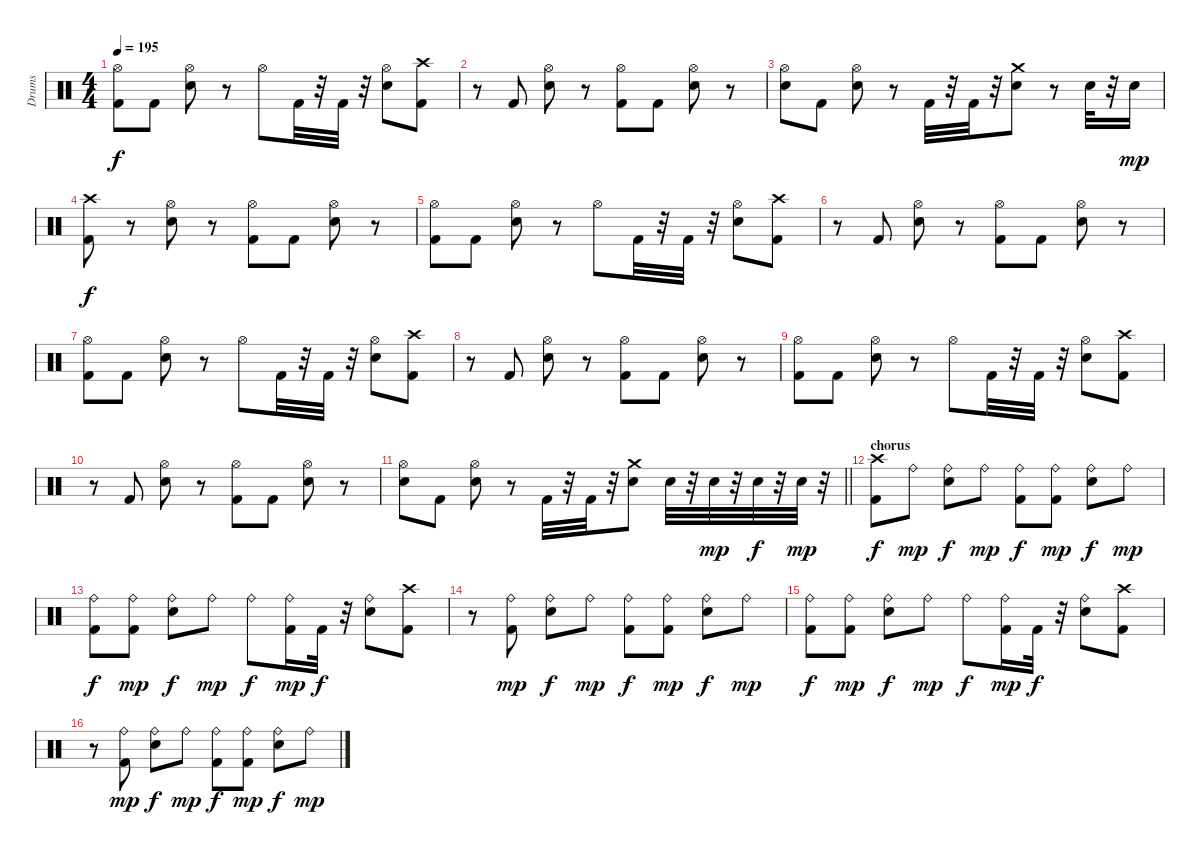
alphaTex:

\track ("Drums" "Drums") {instrument percussion}
\staff {score}
\articulation defaults
\ts (4 4)
\tempo 195
\clef neutral
\ks c
("Kick (hit) 2" "Hi-Hat (open)").8{dy f} "Kick (hit) 2".8 ("Electric Snare (hit)" "Hi-Hat (open)").8 r.8 "Hi-Hat (open)".8 "Kick (hit) 2".32 r.32 "Kick (hit) 2".32 r.32 ("Electric Snare (hit)" "Hi-Hat (open)").8 ("Kick (hit) 2" "Crash high (hit)").8 |
r.8 "Kick (hit) 2".8 ("Electric Snare (hit)" "Hi-Hat (open)").8 r.8 ("Kick (hit) 2" "Hi-Hat (open)").8 "Kick (hit) 2".8 ("Electric Snare (hit)" "Hi-Hat (open)").8 r.8 |
("Hi-Hat (open)" "Electric Snare (hit)").8 "Kick (hit) 2".8 ("Electric Snare (hit)" "Hi-Hat (open)").8 r.8 "Kick (hit) 2".32 r.32 "Kick (hit) 2".32 r.32 ("Electric Snare (hit)" "Crash medium (hit)").8 r.8 "Electric Snare (hit)".32 r.32 "Electric Snare (hit)".16{dy mp} |
("Kick (hit) 2" "Crash high (hit)").8{dy f} r.8 ("Electric Snare (hit)" "Hi-Hat (open)").8 r.8 ("Kick (hit) 2" "Hi-Hat (open)").8 "Kick (hit) 2".8 ("Electric Snare (hit)" "Hi-Hat (open)").8 r.8 |
("Kick (hit) 2" "Hi-Hat (open)").8 "Kick (hit) 2".8 ("Electric Snare (hit)" "Hi-Hat (open)").8 r.8 "Hi-Hat (open)".8 "Kick (hit) 2".32 r.32 "Kick (hit) 2".32 r.32 ("Electric Snare (hit)" "Hi-Hat (open)").8 ("Kick (hit) 2" "Crash high (hit)").8 |
r.8 "Kick (hit) 2".8 ("Electric Snare (hit)" "Hi-Hat (open)").8 r.8 ("Kick (hit) 2" "Hi-Hat (open)").8 "Kick (hit) 2".8 ("Electric Snare (hit)" "Hi-Hat (open)").8 r.8 |
("Kick (hit) 2" "Hi-Hat (open)").8 "Kick (hit) 2".8 ("Electric Snare (hit)" "Hi-Hat (open)").8 r.8 "Hi-Hat (open)".8 "Kick (hit) 2".32 r.32 "Kick (hit) 2".32 r.32 ("Electric Snare (hit)" "Hi-Hat (open)").8 ("Kick (hit) 2" "Crash high (hit)").8 |
r.8 "Kick (hit) 2".8 ("Electric Snare (hit)" "Hi-Hat (open)").8 r.8 ("Kick (hit) 2" "Hi-Hat (open)").8 "Kick (hit) 2".8 ("Electric Snare (hit)" "Hi-Hat (open)").8 r.8 |
("Kick (hit) 2" "Hi-Hat (open)").8 "Kick (hit) 2".8 ("Electric Snare (hit)" "Hi-Hat (open)").8 r.8 "Hi-Hat (open)".8 "Kick (hit) 2".32 r.32 "Kick (hit) 2".32 r.32 ("Electric Snare (hit)" "Hi-Hat (open)").8 ("Kick (hit) 2" "Crash high (hit)").8 |
r.8 "Kick (hit) 2".8 ("Electric Snare (hit)" "Hi-Hat (open)").8 r.8 ("Kick (hit) 2" "Hi-Hat (open)").8 "Kick (hit) 2".8 ("Electric Snare (hit)" "Hi-Hat (open)").8 r.8 |
\barLineRight lightlight
("Hi-Hat (open)" "Electric Snare (hit)").8 "Kick (hit) 2".8 ("Electric Snare (hit)" "Hi-Hat (open)").8 r.8 "Kick (hit) 2".32 r.32 "Kick (hit) 2".32 r.32 ("Electric Snare (hit)" "Crash medium (hit)").8 "Electric Snare (hit)".32 r.32 "Electric Snare (hit)".32{dy mp} r.32 "Electric Snare (hit)".32{dy f} r.32 "Electric Snare (hit)".32{dy mp} r.32 |
\section ("" "chorus")
("Kick (hit) 2" "Crash high (hit)").8{dy f} "Ride (bell)".8{dy mp} ("Electric Snare (hit)" "Ride (bell)").8{dy f} "Ride (bell)".8{dy mp} ("Kick (hit) 2" "Ride (bell)").8{dy f} ("Kick (hit) 2" "Ride (bell)").8{dy mp} ("Electric Snare (hit)" "Ride (bell)").8{dy f} "Ride (bell)".8{dy mp} |
("Kick (hit) 2" "Ride (bell)").8{dy f} ("Kick (hit) 2" "Ride (bell)").8{dy mp} ("Electric Snare (hit)" "Ride (bell)").8{dy f} "Ride (bell)".8{dy mp} "Ride (bell)".8{dy f} ("Kick (hit) 2" "Ride (bell)").16{dy mp} "Kick (hit) 2".32{dy f} r.32 ("Electric Snare (hit)" "Ride (bell)").8 ("Kick (hit) 2" "Crash high (hit)").8 |
r.8 ("Kick (hit) 2" "Ride (bell)").8{dy mp} ("Electric Snare (hit)" "Ride (bell)").8{dy f} "Ride (bell)".8{dy mp} ("Kick (hit) 2" "Ride (bell)").8{dy f} ("Kick (hit) 2" "Ride (bell)").8{dy mp} ("Electric Snare (hit)" "Ride (bell)").8{dy f} "Ride (bell)".8{dy mp} |
("Kick (hit) 2" "Ride (bell)").8{dy f} ("Kick (hit) 2" "Ride (bell)").8{dy mp} ("Electric Snare (hit)" "Ride (bell)").8{dy f} "Ride (bell)".8{dy mp} "Ride (bell)".8{dy f} ("Kick (hit) 2" "Ride (bell)").16{dy mp} "Kick (hit) 2".32{dy f} r.32 ("Electric Snare (hit)" "Ride (bell)").8 ("Kick (hit) 2" "Crash high (hit)").8 |
r.8 ("Kick (hit) 2" "Ride (bell)").8{dy mp} ("Electric Snare (hit)" "Ride (bell)").8{dy f} "Ride (bell)".8{dy mp} ("Kick (hit) 2" "Ride (bell)").8{dy f} ("Kick (hit) 2" "Ride (bell)").8{dy mp} ("Electric Snare (hit)" "Ride (bell)").8{dy f} "Ride (bell)".8{dy mp}
